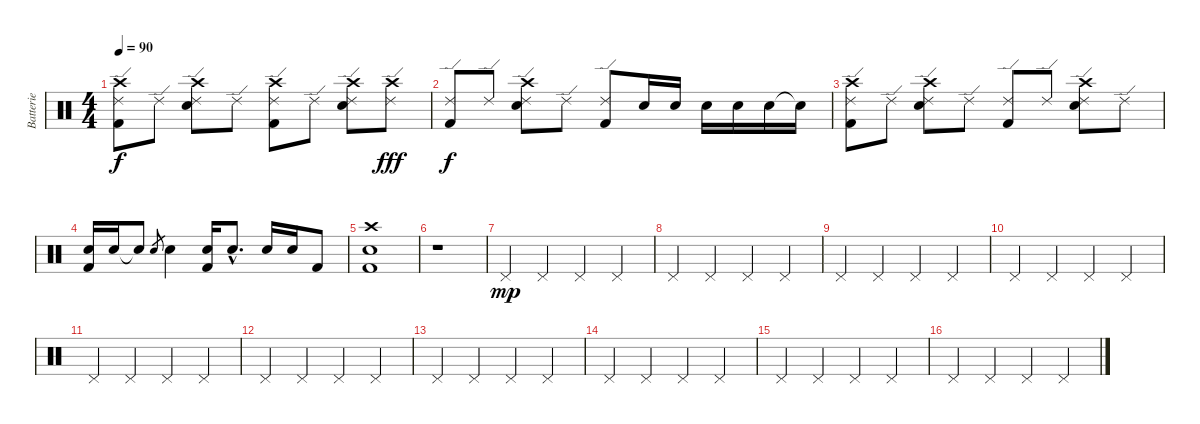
\track ("Batterie" "Batterie") {instrument percussion}
\staff {score}
\articulation defaults
\ts (4 4)
\tempo 90
\clef neutral
\ks c
("Ride (edge) 2" "Kick (hit) 2" "Crash high (hit)").8{dy f} "Ride (edge) 2".8 ("Ride (edge) 2" "Electric Snare (hit)" "Crash high (hit)").8 "Ride (edge) 2".8 ("Ride (edge) 2" "Kick (hit) 2" "Crash high (hit)").8 "Ride (edge) 2".8 ("Ride (edge) 2" "Electric Snare (hit)" "Crash high (hit)").8 ("Ride (edge) 2" "Crash high (hit)").8{dy fff} |
("Ride (edge) 2" "Kick (hit) 2").8{dy f} "Ride (edge) 2".8 ("Ride (edge) 2" "Electric Snare (hit)" "Crash high (hit)").8 "Ride (edge) 2".8 ("Ride (edge) 2" "Kick (hit) 2").8 "Electric Snare (hit)".16 "Electric Snare (hit)".16 "Electric Snare (hit)".16 "Electric Snare (hit)".16 "Electric Snare (hit)".16 "Electric Snare (hit)"{t}.16 |
("Ride (edge) 2" "Kick (hit) 2" "Crash high (hit)").8 "Ride (edge) 2".8 ("Ride (edge) 2" "Electric Snare (hit)" "Crash high (hit)").8 "Ride (edge) 2".8 ("Ride (edge) 2" "Kick (hit) 2").8 "Ride (edge) 2".8 ("Ride (edge) 2" "Electric Snare (hit)" "Crash high (hit)").8 "Ride (edge) 2".8 |
("Kick (hit) 2" "Electric Snare (hit)").16 "Electric Snare (hit)".16 "Snare (hit)"{t}.8 "Electric Snare (hit)".8{gr} "Electric Snare (hit)".4 ("Kick (hit) 2" "Electric Snare (hit)").16 "Electric Snare (hit)"{hac}.8{d} "Electric Snare (hit)".16 "Electric Snare (hit)".16 "Kick (hit) 2".8 |
("Kick (hit) 2" "Electric Snare (hit)" "Crash high (hit)").1 |
r.1 |
"Pedal Hi-Hat (hit)".4{dy mp} "Pedal Hi-Hat (hit)".4 "Pedal Hi-Hat (hit)".4 "Pedal Hi-Hat (hit)".4 |
"Pedal Hi-Hat (hit)".4 "Pedal Hi-Hat (hit)".4 "Pedal Hi-Hat (hit)".4 "Pedal Hi-Hat (hit)".4 |
"Pedal Hi-Hat (hit)".4 "Pedal Hi-Hat (hit)".4 "Pedal Hi-Hat (hit)".4 "Pedal Hi-Hat (hit)".4 |
"Pedal Hi-Hat (hit)".4 "Pedal Hi-Hat (hit)".4 "Pedal Hi-Hat (hit)".4 "Pedal Hi-Hat (hit)".4 |
"Pedal Hi-Hat (hit)".4 "Pedal Hi-Hat (hit)".4 "Pedal Hi-Hat (hit)".4 "Pedal Hi-Hat (hit)".4 |
"Pedal Hi-Hat (hit)".4 "Pedal Hi-Hat (hit)".4 "Pedal Hi-Hat (hit)".4 "Pedal Hi-Hat (hit)".4 |
"Pedal Hi-Hat (hit)".4 "Pedal Hi-Hat (hit)".4 "Pedal Hi-Hat (hit)".4 "Pedal Hi-Hat (hit)".4 |
"Pedal Hi-Hat (hit)".4 "Pedal Hi-Hat (hit)".4 "Pedal Hi-Hat (hit)".4 "Pedal Hi-Hat (hit)".4 |
"Pedal Hi-Hat (hit)".4 "Pedal Hi-Hat (hit)".4 "Pedal Hi-Hat (hit)".4 "Pedal Hi-Hat (hit)".4 |
"Pedal Hi-Hat (hit)".4 "Pedal Hi-Hat (hit)".4 "Pedal Hi-Hat (hit)".4 "Pedal Hi-Hat (hit)".4
